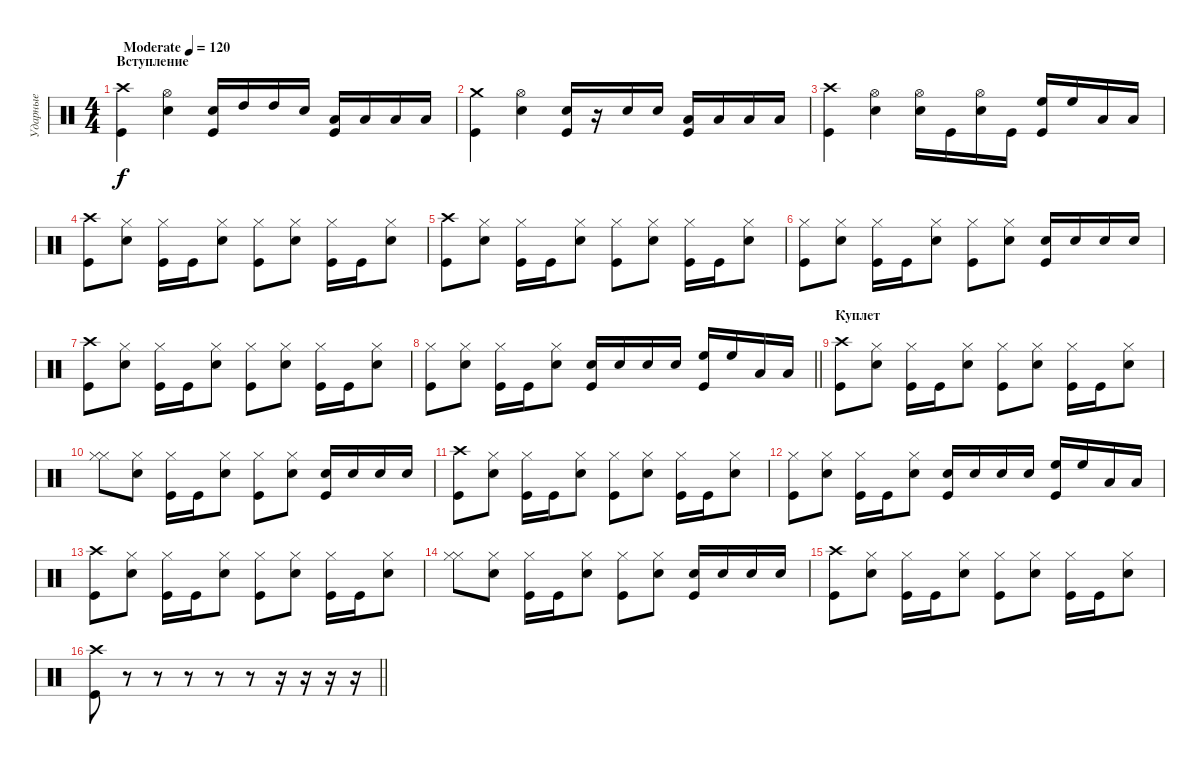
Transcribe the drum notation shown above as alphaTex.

\track ("Ударные" "Ударные") {solo instrument percussion}
\staff {score}
\articulation defaults
\ts (4 4)
\section ("" "Вступление")
\tempo (120 "Moderate")
\clef neutral
\ks c
("Kick (hit)" "Crash high (hit)").4{dy f} ("Snare (hit) 2" "Hi-Hat (open)").4 ("Snare (hit) 2" "Kick (hit)").16 "High Tom (hit)".16 "High Tom (hit)".16 "Snare (hit) 2".16 ("Low Tom (hit)" "Kick (hit)").16 "Low Tom (hit)".16 "Low Tom (hit)".16 "Low Tom (hit)".16 |
("Kick (hit)" "Crash medium (hit)").4 ("Snare (hit) 2" "Hi-Hat (open)").4 ("Snare (hit) 2" "Kick (hit)").16 r.16 "Snare (hit) 2".16 "Snare (hit) 2".16 ("Low Tom (hit)" "Kick (hit)").16 "Low Tom (hit)".16 "Low Floor Tom (hit)".16 "Low Floor Tom (hit)".16 |
("Kick (hit)" "Crash high (hit)").4 ("Snare (hit) 2" "Hi-Hat (open)").4 ("Snare (hit) 2" "Hi-Hat (open)").16 "Kick (hit)".16 ("Snare (hit) 2" "Hi-Hat (open)").16 "Kick (hit)".16 ("High Floor Tom (hit)" "Kick (hit)").16 "High Floor Tom (hit)".16 "Low Tom (hit)".16 "Low Tom (hit)".16 |
("Kick (hit)" "Crash high (hit)").8 ("Snare (hit) 2" "Hi-Hat (closed)").8 ("Kick (hit)" "Hi-Hat (closed)").16 "Kick (hit)".16 ("Snare (hit) 2" "Hi-Hat (closed)").8 ("Kick (hit)" "Hi-Hat (closed)").8 ("Snare (hit) 2" "Hi-Hat (closed)").8 ("Kick (hit)" "Hi-Hat (closed)").16 "Kick (hit)".16 ("Snare (hit) 2" "Hi-Hat (closed)").8 |
("Kick (hit)" "Crash high (hit)").8 ("Snare (hit) 2" "Hi-Hat (closed)").8 ("Kick (hit)" "Hi-Hat (closed)").16 "Kick (hit)".16 ("Snare (hit) 2" "Hi-Hat (closed)").8 ("Kick (hit)" "Hi-Hat (closed)").8 ("Snare (hit) 2" "Hi-Hat (closed)").8 ("Kick (hit)" "Hi-Hat (closed)").16 "Kick (hit)".16 ("Snare (hit) 2" "Hi-Hat (closed)").8 |
("Kick (hit)" "Hi-Hat (closed)").8 ("Snare (hit) 2" "Hi-Hat (closed)").8 ("Kick (hit)" "Hi-Hat (closed)").16 "Kick (hit)".16 ("Snare (hit) 2" "Hi-Hat (closed)").8 ("Kick (hit)" "Hi-Hat (closed)").8 ("Snare (hit) 2" "Hi-Hat (closed)").8 ("Kick (hit)" "Snare (hit) 2").16 "Snare (hit) 2".16 "Snare (hit) 2".16 "Snare (hit) 2".16 |
("Kick (hit)" "Crash high (hit)").8 ("Snare (hit) 2" "Hi-Hat (closed)").8 ("Kick (hit)" "Hi-Hat (closed)").16 "Kick (hit)".16 ("Snare (hit) 2" "Hi-Hat (closed)").8 ("Kick (hit)" "Hi-Hat (closed)").8 ("Snare (hit) 2" "Hi-Hat (closed)").8 ("Kick (hit)" "Hi-Hat (closed)").16 "Kick (hit)".16 ("Snare (hit) 2" "Hi-Hat (closed)").8 |
\barLineRight lightlight
("Kick (hit)" "Hi-Hat (closed)").8 ("Snare (hit) 2" "Hi-Hat (closed)").8 ("Kick (hit)" "Hi-Hat (closed)").16 "Kick (hit)".16 ("Snare (hit) 2" "Hi-Hat (closed)").8 ("Snare (hit) 2" "Kick (hit)").16 "Snare (hit) 2".16 "Snare (hit) 2".16 "Snare (hit) 2".16 ("High Floor Tom (hit)" "Kick (hit)").16 "High Floor Tom (hit)".16 "Low Tom (hit)".16 "Low Tom (hit)".16 |
\section ("" "Куплет")
("Kick (hit)" "Crash high (hit)").8 ("Snare (hit) 2" "Hi-Hat (closed)").8 ("Kick (hit)" "Hi-Hat (closed)").16 "Kick (hit)".16 ("Snare (hit) 2" "Hi-Hat (closed)").8 ("Kick (hit)" "Hi-Hat (closed)").8 ("Snare (hit) 2" "Hi-Hat (closed)").8 ("Kick (hit)" "Hi-Hat (closed)").16 "Kick (hit)".16 ("Snare (hit) 2" "Hi-Hat (closed)").8 |
("Hi-Hat (closed)" "Hi-Hat (closed)").8 ("Snare (hit) 2" "Hi-Hat (closed)").8 ("Kick (hit)" "Hi-Hat (closed)").16 "Kick (hit)".16 ("Snare (hit) 2" "Hi-Hat (closed)").8 ("Kick (hit)" "Hi-Hat (closed)").8 ("Snare (hit) 2" "Hi-Hat (closed)").8 ("Kick (hit)" "Snare (hit) 2").16 "Snare (hit) 2".16 "Snare (hit) 2".16 "Snare (hit) 2".16 |
("Kick (hit)" "Crash high (hit)").8 ("Snare (hit) 2" "Hi-Hat (closed)").8 ("Kick (hit)" "Hi-Hat (closed)").16 "Kick (hit)".16 ("Snare (hit) 2" "Hi-Hat (closed)").8 ("Kick (hit)" "Hi-Hat (closed)").8 ("Snare (hit) 2" "Hi-Hat (closed)").8 ("Kick (hit)" "Hi-Hat (closed)").16 "Kick (hit)".16 ("Snare (hit) 2" "Hi-Hat (closed)").8 |
("Kick (hit)" "Hi-Hat (closed)").8 ("Snare (hit) 2" "Hi-Hat (closed)").8 ("Kick (hit)" "Hi-Hat (closed)").16 "Kick (hit)".16 ("Snare (hit) 2" "Hi-Hat (closed)").8 ("Snare (hit) 2" "Kick (hit)").16 "Snare (hit) 2".16 "Snare (hit) 2".16 "Snare (hit) 2".16 ("High Floor Tom (hit)" "Kick (hit)").16 "High Floor Tom (hit)".16 "Low Tom (hit)".16 "Low Tom (hit)".16 |
("Kick (hit)" "Crash high (hit)").8 ("Snare (hit) 2" "Hi-Hat (closed)").8 ("Kick (hit)" "Hi-Hat (closed)").16 "Kick (hit)".16 ("Snare (hit) 2" "Hi-Hat (closed)").8 ("Kick (hit)" "Hi-Hat (closed)").8 ("Snare (hit) 2" "Hi-Hat (closed)").8 ("Kick (hit)" "Hi-Hat (closed)").16 "Kick (hit)".16 ("Snare (hit) 2" "Hi-Hat (closed)").8 |
("Hi-Hat (closed)" "Hi-Hat (closed)").8 ("Snare (hit) 2" "Hi-Hat (closed)").8 ("Kick (hit)" "Hi-Hat (closed)").16 "Kick (hit)".16 ("Snare (hit) 2" "Hi-Hat (closed)").8 ("Kick (hit)" "Hi-Hat (closed)").8 ("Snare (hit) 2" "Hi-Hat (closed)").8 ("Kick (hit)" "Snare (hit) 2").16 "Snare (hit) 2".16 "Snare (hit) 2".16 "Snare (hit) 2".16 |
("Kick (hit)" "Crash high (hit)").8 ("Snare (hit) 2" "Hi-Hat (closed)").8 ("Kick (hit)" "Hi-Hat (closed)").16 "Kick (hit)".16 ("Snare (hit) 2" "Hi-Hat (closed)").8 ("Kick (hit)" "Hi-Hat (closed)").8 ("Snare (hit) 2" "Hi-Hat (closed)").8 ("Kick (hit)" "Hi-Hat (closed)").16 "Kick (hit)".16 ("Snare (hit) 2" "Hi-Hat (closed)").8 |
\barLineRight lightlight
("Kick (hit)" "Crash high (hit)").8 r.8 r.8 r.8 r.8 r.8 r.16 r.16 r.16 r.16
